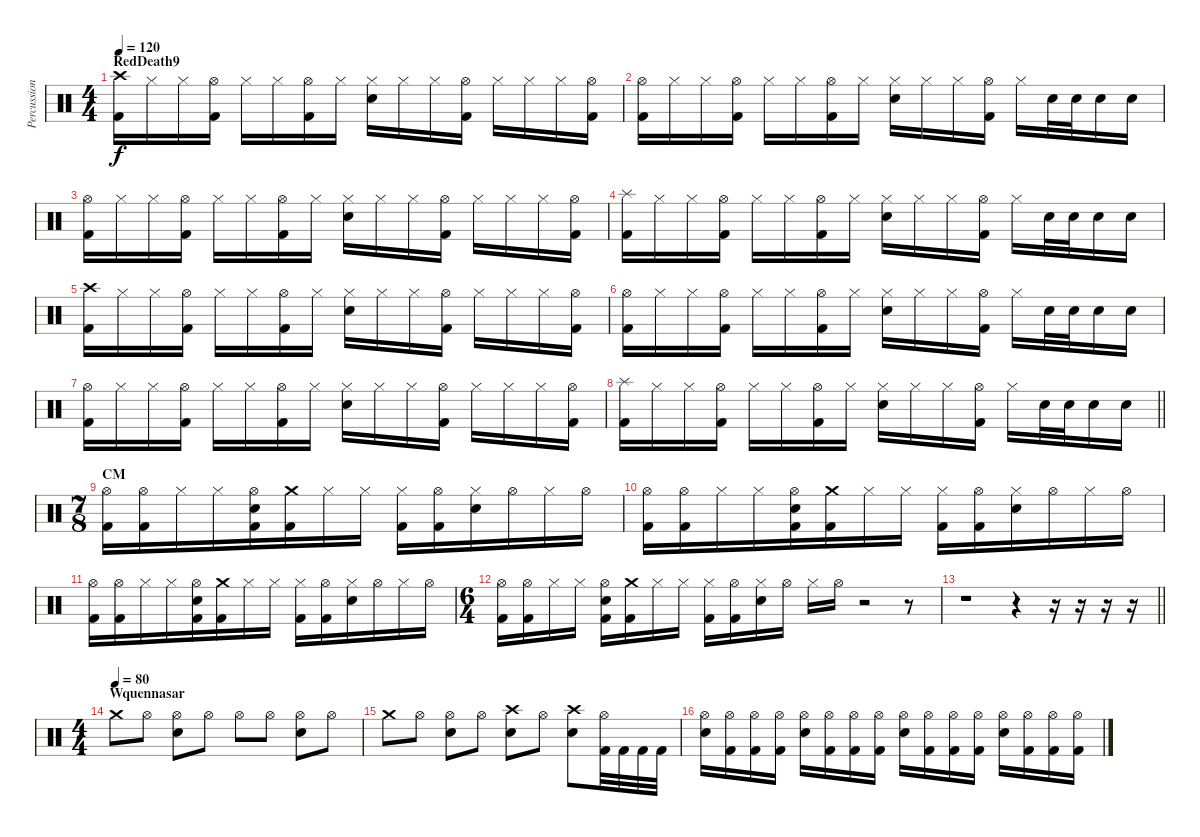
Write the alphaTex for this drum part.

\track ("Percussion" "Percussion") {instrument percussion}
\staff {score}
\articulation defaults
\ts (4 4)
\section ("" "RedDeath9")
\tempo 120
\clef neutral
\ks c
("Crash high (hit)" "Kick (hit) 2").16{dy f} "Hi-Hat (closed)".16 "Hi-Hat (closed)".16 ("Hi-Hat (open)" "Kick (hit) 2").16 "Hi-Hat (closed)".16 "Hi-Hat (closed)".16 ("Hi-Hat (open)" "Kick (hit) 2").16 "Hi-Hat (closed)".16 ("Hi-Hat (closed)" "Electric Snare (hit)").16 "Hi-Hat (closed)".16 "Hi-Hat (closed)".16 ("Hi-Hat (open)" "Kick (hit) 2").16 "Hi-Hat (closed)".16 "Hi-Hat (closed)".16 "Hi-Hat (closed)".16 ("Hi-Hat (open)" "Kick (hit) 2").16 |
("Hi-Hat (open)" "Kick (hit) 2").16 "Hi-Hat (closed)".16 "Hi-Hat (closed)".16 ("Hi-Hat (open)" "Kick (hit) 2").16 "Hi-Hat (closed)".16 "Hi-Hat (closed)".16 ("Hi-Hat (open)" "Kick (hit) 2").16 "Hi-Hat (closed)".16 ("Hi-Hat (closed)" "Electric Snare (hit)").16 "Hi-Hat (closed)".16 "Hi-Hat (closed)".16 ("Hi-Hat (open)" "Kick (hit) 2").16 "Hi-Hat (closed)".16 "Electric Snare (hit)".32 "Electric Snare (hit)".32 "Electric Snare (hit)".16 "Electric Snare (hit)".16 |
("Hi-Hat (open)" "Kick (hit) 2").16 "Hi-Hat (closed)".16 "Hi-Hat (closed)".16 ("Hi-Hat (open)" "Kick (hit) 2").16 "Hi-Hat (closed)".16 "Hi-Hat (closed)".16 ("Hi-Hat (open)" "Kick (hit) 2").16 "Hi-Hat (closed)".16 ("Hi-Hat (closed)" "Electric Snare (hit)").16 "Hi-Hat (closed)".16 "Hi-Hat (closed)".16 ("Hi-Hat (open)" "Kick (hit) 2").16 "Hi-Hat (closed)".16 "Hi-Hat (closed)".16 "Hi-Hat (closed)".16 ("Hi-Hat (open)" "Kick (hit) 2").16 |
("Splash (hit)" "Kick (hit) 2").16 "Hi-Hat (closed)".16 "Hi-Hat (closed)".16 ("Hi-Hat (open)" "Kick (hit) 2").16 "Hi-Hat (closed)".16 "Hi-Hat (closed)".16 ("Hi-Hat (open)" "Kick (hit) 2").16 "Hi-Hat (closed)".16 ("Hi-Hat (closed)" "Electric Snare (hit)").16 "Hi-Hat (closed)".16 "Hi-Hat (closed)".16 ("Hi-Hat (open)" "Kick (hit) 2").16 "Hi-Hat (closed)".16 "Electric Snare (hit)".32 "Electric Snare (hit)".32 "Electric Snare (hit)".16 "Electric Snare (hit)".16 |
("Crash high (hit)" "Kick (hit) 2").16 "Hi-Hat (closed)".16 "Hi-Hat (closed)".16 ("Hi-Hat (open)" "Kick (hit) 2").16 "Hi-Hat (closed)".16 "Hi-Hat (closed)".16 ("Hi-Hat (open)" "Kick (hit) 2").16 "Hi-Hat (closed)".16 ("Hi-Hat (closed)" "Electric Snare (hit)").16 "Hi-Hat (closed)".16 "Hi-Hat (closed)".16 ("Hi-Hat (open)" "Kick (hit) 2").16 "Hi-Hat (closed)".16 "Hi-Hat (closed)".16 "Hi-Hat (closed)".16 ("Hi-Hat (open)" "Kick (hit) 2").16 |
("Hi-Hat (open)" "Kick (hit) 2").16 "Hi-Hat (closed)".16 "Hi-Hat (closed)".16 ("Hi-Hat (open)" "Kick (hit) 2").16 "Hi-Hat (closed)".16 "Hi-Hat (closed)".16 ("Hi-Hat (open)" "Kick (hit) 2").16 "Hi-Hat (closed)".16 ("Hi-Hat (closed)" "Electric Snare (hit)").16 "Hi-Hat (closed)".16 "Hi-Hat (closed)".16 ("Hi-Hat (open)" "Kick (hit) 2").16 "Hi-Hat (closed)".16 "Electric Snare (hit)".32 "Electric Snare (hit)".32 "Electric Snare (hit)".16 "Electric Snare (hit)".16 |
("Hi-Hat (open)" "Kick (hit) 2").16 "Hi-Hat (closed)".16 "Hi-Hat (closed)".16 ("Hi-Hat (open)" "Kick (hit) 2").16 "Hi-Hat (closed)".16 "Hi-Hat (closed)".16 ("Hi-Hat (open)" "Kick (hit) 2").16 "Hi-Hat (closed)".16 ("Hi-Hat (closed)" "Electric Snare (hit)").16 "Hi-Hat (closed)".16 "Hi-Hat (closed)".16 ("Hi-Hat (open)" "Kick (hit) 2").16 "Hi-Hat (closed)".16 "Hi-Hat (closed)".16 "Hi-Hat (closed)".16 ("Hi-Hat (open)" "Kick (hit) 2").16 |
\barLineRight lightlight
("Splash (hit)" "Kick (hit) 2").16 "Hi-Hat (closed)".16 "Hi-Hat (closed)".16 ("Hi-Hat (open)" "Kick (hit) 2").16 "Hi-Hat (closed)".16 "Hi-Hat (closed)".16 ("Hi-Hat (open)" "Kick (hit) 2").16 "Hi-Hat (closed)".16 ("Hi-Hat (closed)" "Electric Snare (hit)").16 "Hi-Hat (closed)".16 "Hi-Hat (closed)".16 ("Hi-Hat (open)" "Kick (hit) 2").16 "Hi-Hat (closed)".16 "Electric Snare (hit)".32 "Electric Snare (hit)".32 "Electric Snare (hit)".16 "Electric Snare (hit)".16 |
\ts (7 8)
\section ("" "CM")
("Hi-Hat (open)" "Kick (hit) 2").16 ("Hi-Hat (open)" "Kick (hit) 2").16 "Hi-Hat (closed)".16 "Hi-Hat (closed)".16 ("Hi-Hat (open)" "Electric Snare (hit)" "Kick (hit) 2").16 ("Crash medium (hit)" "Kick (hit) 2").16 "Hi-Hat (closed)".16 "Hi-Hat (closed)".16 ("Hi-Hat (closed)" "Kick (hit) 2").16 ("Hi-Hat (open)" "Kick (hit) 2").16 ("Hi-Hat (closed)" "Electric Snare (hit)").16 "Hi-Hat (open)".16 "Hi-Hat (closed)".16 "Hi-Hat (open)".16 |
("Hi-Hat (open)" "Kick (hit) 2").16 ("Hi-Hat (open)" "Kick (hit) 2").16 "Hi-Hat (closed)".16 "Hi-Hat (closed)".16 ("Hi-Hat (open)" "Electric Snare (hit)" "Kick (hit) 2").16 ("Crash medium (hit)" "Kick (hit) 2").16 "Hi-Hat (closed)".16 "Hi-Hat (closed)".16 ("Hi-Hat (closed)" "Kick (hit) 2").16 ("Hi-Hat (open)" "Kick (hit) 2").16 ("Hi-Hat (closed)" "Electric Snare (hit)").16 "Hi-Hat (open)".16 "Hi-Hat (closed)".16 "Hi-Hat (open)".16 |
("Hi-Hat (open)" "Kick (hit) 2").16 ("Hi-Hat (open)" "Kick (hit) 2").16 "Hi-Hat (closed)".16 "Hi-Hat (closed)".16 ("Hi-Hat (open)" "Electric Snare (hit)" "Kick (hit) 2").16 ("Crash medium (hit)" "Kick (hit) 2").16 "Hi-Hat (closed)".16 "Hi-Hat (closed)".16 ("Hi-Hat (closed)" "Kick (hit) 2").16 ("Hi-Hat (open)" "Kick (hit) 2").16 ("Hi-Hat (closed)" "Electric Snare (hit)").16 "Hi-Hat (open)".16 "Hi-Hat (closed)".16 "Hi-Hat (open)".16 |
\ts (6 4)
("Hi-Hat (open)" "Kick (hit) 2").16 ("Hi-Hat (open)" "Kick (hit) 2").16 "Hi-Hat (closed)".16 "Hi-Hat (closed)".16 ("Hi-Hat (open)" "Electric Snare (hit)" "Kick (hit) 2").16 ("Crash medium (hit)" "Kick (hit) 2").16 "Hi-Hat (closed)".16 "Hi-Hat (closed)".16 ("Hi-Hat (closed)" "Kick (hit) 2").16 ("Hi-Hat (open)" "Kick (hit) 2").16 ("Hi-Hat (closed)" "Electric Snare (hit)").16 "Hi-Hat (open)".16 "Hi-Hat (closed)".16 "Hi-Hat (open)".16 r.2 r.8 |
\barLineRight lightlight
r.1 r.4 r.16 r.16 r.16 r.16 |
\ts (4 4)
\section ("" "Wquennasar")
\tempo (80)
"Crash medium (hit)".8 "Hi-Hat (open)".8 ("Hi-Hat (open)" "Electric Snare (hit)").8 "Hi-Hat (open)".8 "Hi-Hat (open)".8 "Hi-Hat (open)".8 ("Hi-Hat (open)" "Electric Snare (hit)").8 "Hi-Hat (open)".8 |
"Crash medium (hit)".8 "Hi-Hat (open)".8 ("Hi-Hat (open)" "Electric Snare (hit)").8 "Hi-Hat (open)".8 ("Crash high (hit)" "Electric Snare (hit)").8 "Hi-Hat (open)".8 ("Crash high (hit)" "Electric Snare (hit)").8 ("Hi-Hat (open)" "Kick (hit) 2").32 "Kick (hit) 2".32 "Kick (hit) 2".32 "Kick (hit) 2".32 |
("Hi-Hat (open)" "Electric Snare (hit)").16 ("Hi-Hat (open)" "Kick (hit) 2").16 ("Hi-Hat (open)" "Kick (hit) 2").16 ("Hi-Hat (open)" "Kick (hit) 2").16 ("Hi-Hat (open)" "Electric Snare (hit)").16 ("Hi-Hat (open)" "Kick (hit) 2").16 ("Hi-Hat (open)" "Kick (hit) 2").16 ("Hi-Hat (open)" "Kick (hit) 2").16 ("Hi-Hat (open)" "Electric Snare (hit)").16 ("Hi-Hat (open)" "Kick (hit) 2").16 ("Hi-Hat (open)" "Kick (hit) 2").16 ("Hi-Hat (open)" "Kick (hit) 2").16 ("Hi-Hat (open)" "Electric Snare (hit)").16 ("Hi-Hat (open)" "Kick (hit) 2").16 ("Hi-Hat (open)" "Kick (hit) 2").16 ("Hi-Hat (open)" "Kick (hit) 2").16
